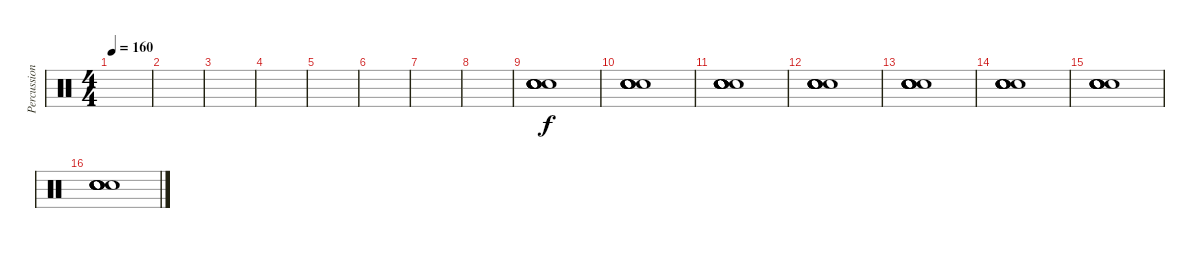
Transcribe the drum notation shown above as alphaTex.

\track ("Percussion" "Percussion") {instrument percussion}
\staff {score}
\articulation defaults
\ts (4 4)
\tempo 160
\clef neutral
\ks c
|
|
|
|
|
|
|
|
("Hand Clap (hit)" "Hand Clap (hit)" "Hand Clap (hit)" "Hand Clap (hit)" "Hand Clap (hit)" "Hand Clap (hit)").1 |
("Hand Clap (hit)" "Hand Clap (hit)" "Hand Clap (hit)" "Hand Clap (hit)" "Hand Clap (hit)" "Hand Clap (hit)").1 |
("Hand Clap (hit)" "Hand Clap (hit)" "Hand Clap (hit)" "Hand Clap (hit)" "Hand Clap (hit)" "Hand Clap (hit)").1 |
("Hand Clap (hit)" "Hand Clap (hit)" "Hand Clap (hit)" "Hand Clap (hit)" "Hand Clap (hit)" "Hand Clap (hit)").1 |
("Hand Clap (hit)" "Hand Clap (hit)" "Hand Clap (hit)" "Hand Clap (hit)" "Hand Clap (hit)" "Hand Clap (hit)").1 |
("Hand Clap (hit)" "Hand Clap (hit)" "Hand Clap (hit)" "Hand Clap (hit)" "Hand Clap (hit)" "Hand Clap (hit)").1 |
("Hand Clap (hit)" "Hand Clap (hit)" "Hand Clap (hit)" "Hand Clap (hit)" "Hand Clap (hit)" "Hand Clap (hit)").1 |
("Hand Clap (hit)" "Hand Clap (hit)" "Hand Clap (hit)" "Hand Clap (hit)" "Hand Clap (hit)" "Hand Clap (hit)").1
